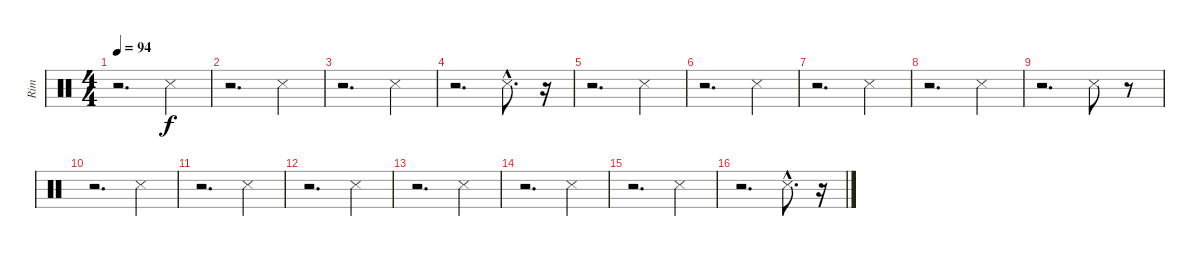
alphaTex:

\track ("Rim" "Rim") {instrument percussion}
\staff {score}
\articulation defaults
\ts (4 4)
\tempo 94
\clef neutral
\ks c
r.2{d dy f} "Snare (side stick) 3".4 |
r.2{d} "Snare (side stick) 3".4 |
r.2{d} "Snare (side stick) 3".4 |
r.2{d} "Snare (side stick) 3"{hac}.8{d} r.16 |
r.2{d} "Snare (side stick) 3".4 |
r.2{d} "Snare (side stick) 3".4 |
r.2{d} "Snare (side stick) 3".4 |
r.2{d} "Snare (side stick) 3".4 |
r.2{d} "Snare (side stick) 3".8 r.8 |
r.2{d} "Snare (side stick) 3".4 |
r.2{d} "Snare (side stick) 3".4 |
r.2{d} "Snare (side stick) 3".4 |
r.2{d} "Snare (side stick) 3".4 |
r.2{d} "Snare (side stick) 3".4 |
r.2{d} "Snare (side stick) 3".4 |
r.2{d} "Snare (side stick) 3"{hac}.8{d} r.16
